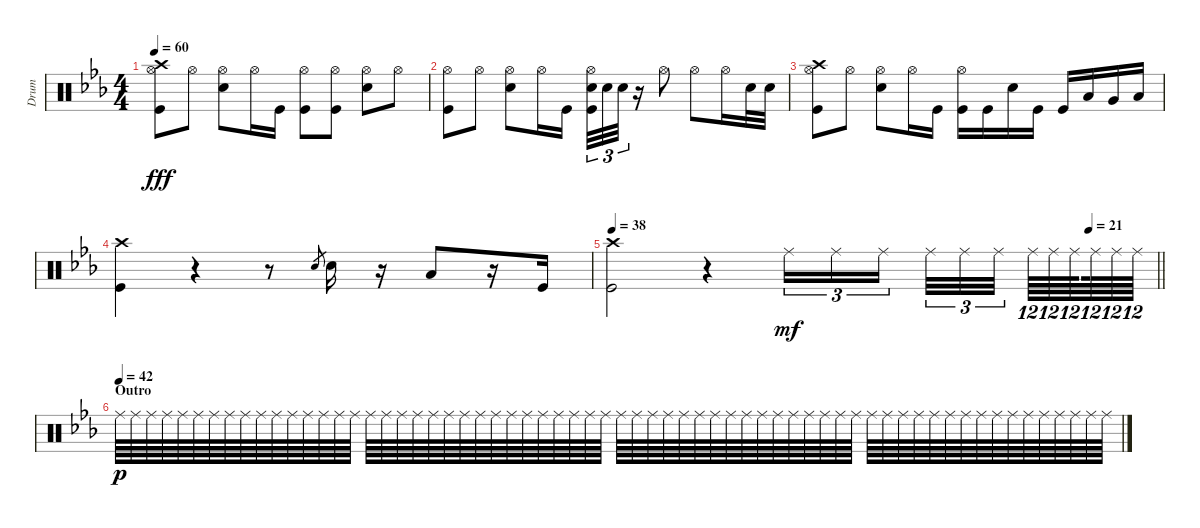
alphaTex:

\track ("Drum" "Drum") {instrument percussion}
\staff {score}
\articulation defaults
\ts (4 4)
\tempo 60
\clef neutral
\ks eb
("Crash high (hit)" "Hi-Hat (open)" "Kick (hit)").8{dy fff} "Hi-Hat (open)".8 ("Hi-Hat (open)" "Electric Snare (hit)").8 "Hi-Hat (open)".16 "Kick (hit)".16 ("Hi-Hat (open)" "Kick (hit)").8 ("Hi-Hat (open)" "Kick (hit)").8 ("Hi-Hat (open)" "Electric Snare (hit)").8 "Hi-Hat (open)".8 |
("Hi-Hat (open)" "Kick (hit)").8 "Hi-Hat (open)".8 ("Hi-Hat (open)" "Electric Snare (hit)").8 "Hi-Hat (open)".16 "Kick (hit)".16 ("Hi-Hat (open)" "Electric Snare (hit)" "Kick (hit)").32{tu (3 2)} "Electric Snare (hit)".32{tu (3 2)} "Electric Snare (hit)".32{tu (3 2)} r.16 "Hi-Hat (open)".8 "Hi-Hat (open)".8 "Hi-Hat (open)".16 "Electric Snare (hit)".32 "Electric Snare (hit)".32 |
("Crash high (hit)" "Hi-Hat (open)" "Kick (hit)").8 "Hi-Hat (open)".8 ("Hi-Hat (open)" "Electric Snare (hit)").8 "Hi-Hat (open)".16 "Kick (hit)".16 ("Hi-Hat (open)" "Kick (hit)").16 "Kick (hit)".16 "Electric Snare (hit)".16 "Kick (hit)".16 "Kick (hit)".16 "Low Tom (hit)".16 "Very Low Tom (hit)".16 "Low Floor Tom (hit)".16 |
("Crash high (hit)" "Kick (hit)").4 r.4 r.8 "Electric Snare (hit)".8{gr} "Electric Snare (hit)".16 r.16 "Low Tom (hit)".8 r.16 "Kick (hit)".16 |
\tempo 38
\tempo (21 0.875)
\barLineRight lightlight
("Crash high (hit)" "Kick (hit)").2 r.4 "Ride (middle)".16{tu (3 2) dy mf} "Ride (middle)".16{tu (3 2)} "Ride (middle)".16{tu (3 2) beam splitsecondary} "Ride (middle)".32{tu (3 2)} "Ride (middle)".32{tu (3 2)} "Ride (middle)".32{tu (3 2) beam splitsecondary} "Ride (middle)".64{tu (12 8)} "Ride (middle)".64{tu (12 8)} "Ride (middle)".64{tu (12 8) beam splitsecondary} "Ride (middle)".64{tu (12 8)} "Ride (middle)".64{tu (12 8)} "Ride (middle)".64{tu (12 8)} |
\section ("" "Outro")
\tempo (42)
"Ride (middle)".64{dy p} "Ride (middle)".64 "Ride (middle)".64 "Ride (middle)".64 "Ride (middle)".64 "Ride (middle)".64 "Ride (middle)".64 "Ride (middle)".64 "Ride (middle)".64 "Ride (middle)".64 "Ride (middle)".64 "Ride (middle)".64 "Ride (middle)".64 "Ride (middle)".64 "Ride (middle)".64 "Ride (middle)".64 "Ride (middle)".64 "Ride (middle)".64 "Ride (middle)".64 "Ride (middle)".64 "Ride (middle)".64 "Ride (middle)".64 "Ride (middle)".64 "Ride (middle)".64 "Ride (middle)".64 "Ride (middle)".64 "Ride (middle)".64 "Ride (middle)".64 "Ride (middle)".64 "Ride (middle)".64 "Ride (middle)".64 "Ride (middle)".64 "Ride (middle)".64 "Ride (middle)".64 "Ride (middle)".64 "Ride (middle)".64 "Ride (middle)".64 "Ride (middle)".64 "Ride (middle)".64 "Ride (middle)".64 "Ride (middle)".64 "Ride (middle)".64 "Ride (middle)".64 "Ride (middle)".64 "Ride (middle)".64 "Ride (middle)".64 "Ride (middle)".64 "Ride (middle)".64 "Ride (middle)".64 "Ride (middle)".64 "Ride (middle)".64 "Ride (middle)".64 "Ride (middle)".64 "Ride (middle)".64 "Ride (middle)".64 "Ride (middle)".64 "Ride (middle)".64 "Ride (middle)".64 "Ride (middle)".64 "Ride (middle)".64 "Ride (middle)".64 "Ride (middle)".64 "Ride (middle)".64 "Ride (middle)".64
